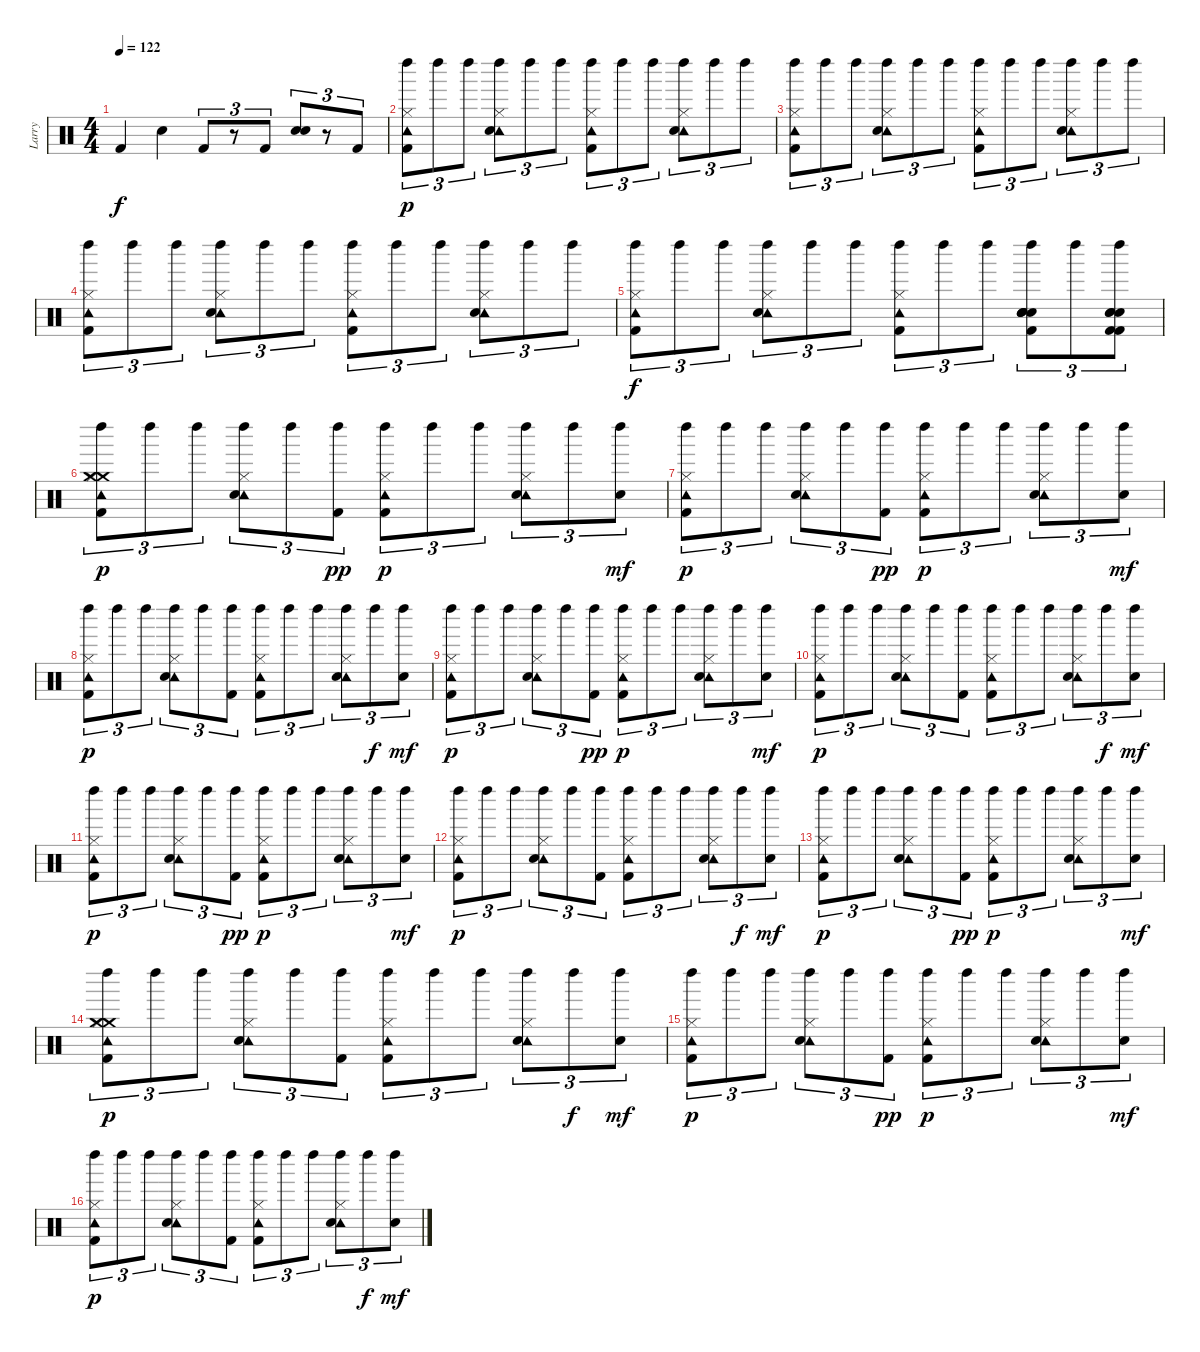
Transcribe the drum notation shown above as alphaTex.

\track ("Larry" "Larry") {instrument percussion}
\staff {score}
\articulation defaults
\ts (4 4)
\tempo 122
\clef neutral
\ks c "Kick (hit) 2".4{dy f} "Snare (hit) 2".4 "Kick (hit) 2".8{tu (3 2)}
r.8{tu (3 2)} "Kick (hit) 2".8{tu (3 2)} ("Hand Clap (hit)" "Snare (hit) 2").8{tu (3 2)} r.8{tu (3 2)} "Kick (hit) 2".8{tu (3 2)} |
("Left Maraca (hit)" "Tambourine (hit)" "Hi-Hat (closed)" "Kick (hit) 2").8{tu (3 2) dy p volume 3} "Left Maraca (hit)".8{tu (3 2)} "Left Maraca (hit)".8{tu (3 2)} ("Left Maraca (hit)" "Tambourine (hit)" "Hi-Hat (closed)" "Snare (hit) 2").8{tu (3 2)} "Left Maraca (hit)".8{tu (3 2)} "Left Maraca (hit)".8{tu (3 2)} ("Left Maraca (hit)" "Tambourine (hit)" "Hi-Hat (closed)" "Kick (hit) 2").8{tu (3 2)} "Left Maraca (hit)".8{tu (3 2)} "Left Maraca (hit)".8{tu (3 2)} ("Left Maraca (hit)" "Tambourine (hit)" "Hi-Hat (closed)" "Snare (hit) 2").8{tu (3 2)} "Left Maraca (hit)".8{tu (3 2)} "Left Maraca (hit)".8{tu (3 2)} |
("Left Maraca (hit)" "Tambourine (hit)" "Hi-Hat (closed)" "Kick (hit) 2").8{tu (3 2)} "Left Maraca (hit)".8{tu (3 2)} "Left Maraca (hit)".8{tu (3 2)} ("Left Maraca (hit)" "Tambourine (hit)" "Hi-Hat (closed)" "Snare (hit) 2").8{tu (3 2)} "Left Maraca (hit)".8{tu (3 2)} "Left Maraca (hit)".8{tu (3 2)} ("Left Maraca (hit)" "Tambourine (hit)" "Hi-Hat (closed)" "Kick (hit) 2").8{tu (3 2)} "Left Maraca (hit)".8{tu (3 2)} "Left Maraca (hit)".8{tu (3 2)} ("Left Maraca (hit)" "Tambourine (hit)" "Hi-Hat (closed)" "Snare (hit) 2").8{tu (3 2)} "Left Maraca (hit)".8{tu (3 2)} "Left Maraca (hit)".8{tu (3 2)} |
("Left Maraca (hit)" "Tambourine (hit)" "Hi-Hat (closed)" "Kick (hit) 2").8{tu (3 2)} "Left Maraca (hit)".8{tu (3 2)} "Left Maraca (hit)".8{tu (3 2)} ("Left Maraca (hit)" "Tambourine (hit)" "Hi-Hat (closed)" "Snare (hit) 2").8{tu (3 2)} "Left Maraca (hit)".8{tu (3 2)} "Left Maraca (hit)".8{tu (3 2)} ("Left Maraca (hit)" "Tambourine (hit)" "Hi-Hat (closed)" "Kick (hit) 2").8{tu (3 2)} "Left Maraca (hit)".8{tu (3 2)} "Left Maraca (hit)".8{tu (3 2)} ("Left Maraca (hit)" "Tambourine (hit)" "Hi-Hat (closed)" "Snare (hit) 2").8{tu (3 2)} "Left Maraca (hit)".8{tu (3 2)} "Left Maraca (hit)".8{tu (3 2)} |
("Left Maraca (hit)" "Tambourine (hit)" "Hi-Hat (closed)" "Kick (hit) 2").8{tu (3 2) dy f} "Left Maraca (hit)".8{tu (3 2)} "Left Maraca (hit)".8{tu (3 2)} ("Left Maraca (hit)" "Tambourine (hit)" "Hi-Hat (closed)" "Snare (hit) 2").8{tu (3 2)} "Left Maraca (hit)".8{tu (3 2)} "Left Maraca (hit)".8{tu (3 2)} ("Left Maraca (hit)" "Tambourine (hit)" "Hi-Hat (closed)" "Kick (hit) 2").8{tu (3 2)} "Left Maraca (hit)".8{tu (3 2)} "Left Maraca (hit)".8{tu (3 2)} ("Left Maraca (hit)" "Kick (hit) 2" "Snare (hit) 2" "Snare (hit) 2" "Snare (hit) 2" "Snare (hit) 2").8{tu (3 2) volume 14} "Left Maraca (hit)".8{tu (3 2)} ("Left Maraca (hit)" "Kick (hit) 2" "Kick (hit) 2" "Snare (hit) 2" "Snare (hit) 2" "Snare (hit) 2").8{tu (3 2)} |
("Left Maraca (hit)" "Crash medium (hit)" "Tambourine (hit)" "Hi-Hat (closed)" "Crash medium (hit)" "Kick (hit) 2").8{tu (3 2) dy p} "Left Maraca (hit)".8{tu (3 2)} "Left Maraca (hit)".8{tu (3 2)} ("Left Maraca (hit)" "Tambourine (hit)" "Hi-Hat (closed)" "Snare (hit) 2").8{tu (3 2)} "Left Maraca (hit)".8{tu (3 2)} ("Left Maraca (hit)" "Kick (hit) 2").8{tu (3 2) dy pp} ("Left Maraca (hit)" "Tambourine (hit)" "Hi-Hat (closed)" "Kick (hit) 2").8{tu (3 2) dy p} "Left Maraca (hit)".8{tu (3 2)} "Left Maraca (hit)".8{tu (3 2)} ("Left Maraca (hit)" "Tambourine (hit)" "Hi-Hat (closed)" "Snare (hit) 2").8{tu (3 2)} "Left Maraca (hit)".8{tu (3 2)} ("Left Maraca (hit)" "Snare (hit) 2").8{tu (3 2) dy mf} |
("Left Maraca (hit)" "Tambourine (hit)" "Hi-Hat (closed)" "Kick (hit) 2").8{tu (3 2) dy p} "Left Maraca (hit)".8{tu (3 2)} "Left Maraca (hit)".8{tu (3 2)} ("Left Maraca (hit)" "Tambourine (hit)" "Hi-Hat (closed)" "Snare (hit) 2").8{tu (3 2)} "Left Maraca (hit)".8{tu (3 2)} ("Left Maraca (hit)" "Kick (hit) 2").8{tu (3 2) dy pp} ("Left Maraca (hit)" "Tambourine (hit)" "Hi-Hat (closed)" "Kick (hit) 2").8{tu (3 2) dy p} "Left Maraca (hit)".8{tu (3 2)} "Left Maraca (hit)".8{tu (3 2)} ("Left Maraca (hit)" "Tambourine (hit)" "Hi-Hat (closed)" "Snare (hit) 2").8{tu (3 2)} "Left Maraca (hit)".8{tu (3 2)} ("Left Maraca (hit)" "Snare (hit) 2").8{tu (3 2) dy mf} |
("Left Maraca (hit)" "Tambourine (hit)" "Hi-Hat (closed)" "Kick (hit) 2").8{tu (3 2) dy p} "Left Maraca (hit)".8{tu (3 2)} "Left Maraca (hit)".8{tu (3 2)} ("Left Maraca (hit)" "Tambourine (hit)" "Hi-Hat (closed)" "Snare (hit) 2").8{tu (3 2)} "Left Maraca (hit)".8{tu (3 2)} ("Left Maraca (hit)" "Kick (hit) 2").8{tu (3 2)} ("Left Maraca (hit)" "Tambourine (hit)" "Hi-Hat (closed)" "Kick (hit) 2").8{tu (3 2)} "Left Maraca (hit)".8{tu (3 2)} "Left Maraca (hit)".8{tu (3 2)} ("Left Maraca (hit)" "Tambourine (hit)" "Hi-Hat (closed)" "Snare (hit) 2").8{tu (3 2)} "Left Maraca (hit)".8{tu (3 2) dy f} ("Left Maraca (hit)" "Snare (hit) 2").8{tu (3 2) dy mf} |
("Left Maraca (hit)" "Tambourine (hit)" "Hi-Hat (closed)" "Kick (hit) 2").8{tu (3 2) dy p} "Left Maraca (hit)".8{tu (3 2)} "Left Maraca (hit)".8{tu (3 2)} ("Left Maraca (hit)" "Tambourine (hit)" "Hi-Hat (closed)" "Snare (hit) 2").8{tu (3 2)} "Left Maraca (hit)".8{tu (3 2)} ("Left Maraca (hit)" "Kick (hit) 2").8{tu (3 2) dy pp} ("Left Maraca (hit)" "Tambourine (hit)" "Hi-Hat (closed)" "Kick (hit) 2").8{tu (3 2) dy p} "Left Maraca (hit)".8{tu (3 2)} "Left Maraca (hit)".8{tu (3 2)} ("Left Maraca (hit)" "Tambourine (hit)" "Hi-Hat (closed)" "Snare (hit) 2").8{tu (3 2)} "Left Maraca (hit)".8{tu (3 2)} ("Left Maraca (hit)" "Snare (hit) 2").8{tu (3 2) dy mf} |
("Left Maraca (hit)" "Tambourine (hit)" "Hi-Hat (closed)" "Kick (hit) 2").8{tu (3 2) dy p} "Left Maraca (hit)".8{tu (3 2)} "Left Maraca (hit)".8{tu (3 2)} ("Left Maraca (hit)" "Tambourine (hit)" "Hi-Hat (closed)" "Snare (hit) 2").8{tu (3 2)} "Left Maraca (hit)".8{tu (3 2)} ("Left Maraca (hit)" "Kick (hit) 2").8{tu (3 2)} ("Left Maraca (hit)" "Tambourine (hit)" "Hi-Hat (closed)" "Kick (hit) 2").8{tu (3 2)} "Left Maraca (hit)".8{tu (3 2)} "Left Maraca (hit)".8{tu (3 2)} ("Left Maraca (hit)" "Tambourine (hit)" "Hi-Hat (closed)" "Snare (hit) 2").8{tu (3 2)} "Left Maraca (hit)".8{tu (3 2) dy f} ("Left Maraca (hit)" "Snare (hit) 2").8{tu (3 2) dy mf} |
("Left Maraca (hit)" "Tambourine (hit)" "Hi-Hat (closed)" "Kick (hit) 2").8{tu (3 2) dy p} "Left Maraca (hit)".8{tu (3 2)} "Left Maraca (hit)".8{tu (3 2)} ("Left Maraca (hit)" "Tambourine (hit)" "Hi-Hat (closed)" "Snare (hit) 2").8{tu (3 2)} "Left Maraca (hit)".8{tu (3 2)} ("Left Maraca (hit)" "Kick (hit) 2").8{tu (3 2) dy pp} ("Left Maraca (hit)" "Tambourine (hit)" "Hi-Hat (closed)" "Kick (hit) 2").8{tu (3 2) dy p} "Left Maraca (hit)".8{tu (3 2)} "Left Maraca (hit)".8{tu (3 2)} ("Left Maraca (hit)" "Tambourine (hit)" "Hi-Hat (closed)" "Snare (hit) 2").8{tu (3 2)} "Left Maraca (hit)".8{tu (3 2)} ("Left Maraca (hit)" "Snare (hit) 2").8{tu (3 2) dy mf} |
("Left Maraca (hit)" "Tambourine (hit)" "Hi-Hat (closed)" "Kick (hit) 2").8{tu (3 2) dy p} "Left Maraca (hit)".8{tu (3 2)} "Left Maraca (hit)".8{tu (3 2)} ("Left Maraca (hit)" "Tambourine (hit)" "Hi-Hat (closed)" "Snare (hit) 2").8{tu (3 2)} "Left Maraca (hit)".8{tu (3 2)} ("Left Maraca (hit)" "Kick (hit) 2").8{tu (3 2)} ("Left Maraca (hit)" "Tambourine (hit)" "Hi-Hat (closed)" "Kick (hit) 2").8{tu (3 2)} "Left Maraca (hit)".8{tu (3 2)} "Left Maraca (hit)".8{tu (3 2)} ("Left Maraca (hit)" "Tambourine (hit)" "Hi-Hat (closed)" "Snare (hit) 2").8{tu (3 2)} "Left Maraca (hit)".8{tu (3 2) dy f} ("Left Maraca (hit)" "Snare (hit) 2").8{tu (3 2) dy mf} |
("Left Maraca (hit)" "Tambourine (hit)" "Hi-Hat (closed)" "Kick (hit) 2").8{tu (3 2) dy p} "Left Maraca (hit)".8{tu (3 2)} "Left Maraca (hit)".8{tu (3 2)} ("Left Maraca (hit)" "Tambourine (hit)" "Hi-Hat (closed)" "Snare (hit) 2").8{tu (3 2)} "Left Maraca (hit)".8{tu (3 2)} ("Left Maraca (hit)" "Kick (hit) 2").8{tu (3 2) dy pp} ("Left Maraca (hit)" "Tambourine (hit)" "Hi-Hat (closed)" "Kick (hit) 2").8{tu (3 2) dy p} "Left Maraca (hit)".8{tu (3 2)} "Left Maraca (hit)".8{tu (3 2)} ("Left Maraca (hit)" "Tambourine (hit)" "Hi-Hat (closed)" "Snare (hit) 2").8{tu (3 2)} "Left Maraca (hit)".8{tu (3 2)} ("Left Maraca (hit)" "Snare (hit) 2").8{tu (3 2) dy mf} |
("Left Maraca (hit)" "Crash medium (hit)" "Tambourine (hit)" "Hi-Hat (closed)" "Crash medium (hit)" "Kick (hit) 2").8{tu (3 2) dy p} "Left Maraca (hit)".8{tu (3 2)} "Left Maraca (hit)".8{tu (3 2)} ("Left Maraca (hit)" "Tambourine (hit)" "Hi-Hat (closed)" "Snare (hit) 2").8{tu (3 2)} "Left Maraca (hit)".8{tu (3 2)} ("Left Maraca (hit)" "Kick (hit) 2").8{tu (3 2)} ("Left Maraca (hit)" "Tambourine (hit)" "Hi-Hat (closed)" "Kick (hit) 2").8{tu (3 2)} "Left Maraca (hit)".8{tu (3 2)} "Left Maraca (hit)".8{tu (3 2)} ("Left Maraca (hit)" "Tambourine (hit)" "Hi-Hat (closed)" "Snare (hit) 2").8{tu (3 2)} "Left Maraca (hit)".8{tu (3 2) dy f} ("Left Maraca (hit)" "Snare (hit) 2").8{tu (3 2) dy mf} |
("Left Maraca (hit)" "Tambourine (hit)" "Hi-Hat (closed)" "Kick (hit) 2").8{tu (3 2) dy p} "Left Maraca (hit)".8{tu (3 2)} "Left Maraca (hit)".8{tu (3 2)} ("Left Maraca (hit)" "Tambourine (hit)" "Hi-Hat (closed)" "Snare (hit) 2").8{tu (3 2)} "Left Maraca (hit)".8{tu (3 2)} ("Left Maraca (hit)" "Kick (hit) 2").8{tu (3 2) dy pp} ("Left Maraca (hit)" "Tambourine (hit)" "Hi-Hat (closed)" "Kick (hit) 2").8{tu (3 2) dy p} "Left Maraca (hit)".8{tu (3 2)} "Left Maraca (hit)".8{tu (3 2)} ("Left Maraca (hit)" "Tambourine (hit)" "Hi-Hat (closed)" "Snare (hit) 2").8{tu (3 2)} "Left Maraca (hit)".8{tu (3 2)} ("Left Maraca (hit)" "Snare (hit) 2").8{tu (3 2) dy mf} |
("Left Maraca (hit)" "Tambourine (hit)" "Hi-Hat (closed)" "Kick (hit) 2").8{tu (3 2) dy p} "Left Maraca (hit)".8{tu (3 2)} "Left Maraca (hit)".8{tu (3 2)} ("Left Maraca (hit)" "Tambourine (hit)" "Hi-Hat (closed)" "Snare (hit) 2").8{tu (3 2)} "Left Maraca (hit)".8{tu (3 2)} ("Left Maraca (hit)" "Kick (hit) 2").8{tu (3 2)} ("Left Maraca (hit)" "Tambourine (hit)" "Hi-Hat (closed)" "Kick (hit) 2").8{tu (3 2)} "Left Maraca (hit)".8{tu (3 2)} "Left Maraca (hit)".8{tu (3 2)} ("Left Maraca (hit)" "Tambourine (hit)" "Hi-Hat (closed)" "Snare (hit) 2").8{tu (3 2)} "Left Maraca (hit)".8{tu (3 2) dy f} ("Left Maraca (hit)" "Snare (hit) 2").8{tu (3 2) dy mf}
